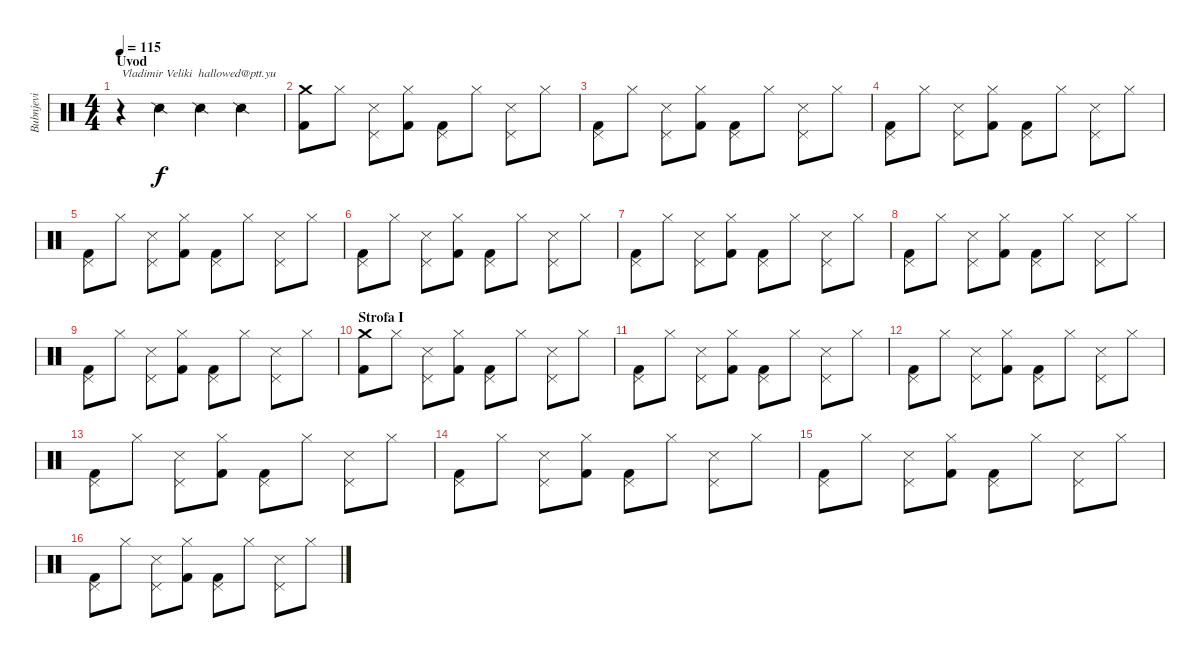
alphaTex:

\track ("Bubnjevi" "Bubnjevi") {instrument percussion}
\staff {score}
\articulation defaults
\ts (4 4)
\section ("" "Uvod")
\tempo 115
\clef neutral
\ks c
r.4{txt "Vladimir Veliki  hallowed@ptt.yu" dy f} "Snare (side stick) 2".4 "Snare (side stick) 2".4 "Snare (side stick) 2".4 |
("Crash medium (hit)" "Kick (hit) 2").8 "Hi-Hat (closed)".8 ("Pedal Hi-Hat (hit)" "Snare (side stick) 3").8 ("Hi-Hat (closed)" "Kick (hit) 2").8 ("Pedal Hi-Hat (hit)" "Kick (hit) 2").8 "Hi-Hat (closed)".8 ("Pedal Hi-Hat (hit)" "Snare (side stick) 3").8 "Hi-Hat (closed)".8 |
("Pedal Hi-Hat (hit)" "Kick (hit) 2").8 "Hi-Hat (closed)".8 ("Pedal Hi-Hat (hit)" "Snare (side stick) 3").8 ("Hi-Hat (closed)" "Kick (hit) 2").8 ("Pedal Hi-Hat (hit)" "Kick (hit) 2").8 "Hi-Hat (closed)".8 ("Pedal Hi-Hat (hit)" "Snare (side stick) 3").8 "Hi-Hat (closed)".8 |
("Pedal Hi-Hat (hit)" "Kick (hit) 2").8 "Hi-Hat (closed)".8 ("Pedal Hi-Hat (hit)" "Snare (side stick) 3").8 ("Hi-Hat (closed)" "Kick (hit) 2").8 ("Pedal Hi-Hat (hit)" "Kick (hit) 2").8 "Hi-Hat (closed)".8 ("Pedal Hi-Hat (hit)" "Snare (side stick) 3").8 "Hi-Hat (closed)".8 |
("Pedal Hi-Hat (hit)" "Kick (hit) 2").8 "Hi-Hat (closed)".8 ("Pedal Hi-Hat (hit)" "Snare (side stick) 3").8 ("Hi-Hat (closed)" "Kick (hit) 2").8 ("Pedal Hi-Hat (hit)" "Kick (hit) 2").8 "Hi-Hat (closed)".8 ("Pedal Hi-Hat (hit)" "Snare (side stick) 3").8 "Hi-Hat (closed)".8 |
("Pedal Hi-Hat (hit)" "Kick (hit) 2").8 "Hi-Hat (closed)".8 ("Pedal Hi-Hat (hit)" "Snare (side stick) 3").8 ("Hi-Hat (closed)" "Kick (hit) 2").8 ("Pedal Hi-Hat (hit)" "Kick (hit) 2").8 "Hi-Hat (closed)".8 ("Pedal Hi-Hat (hit)" "Snare (side stick) 3").8 "Hi-Hat (closed)".8 |
("Pedal Hi-Hat (hit)" "Kick (hit) 2").8 "Hi-Hat (closed)".8 ("Pedal Hi-Hat (hit)" "Snare (side stick) 3").8 ("Hi-Hat (closed)" "Kick (hit) 2").8 ("Pedal Hi-Hat (hit)" "Kick (hit) 2").8 "Hi-Hat (closed)".8 ("Pedal Hi-Hat (hit)" "Snare (side stick) 3").8 "Hi-Hat (closed)".8 |
("Pedal Hi-Hat (hit)" "Kick (hit) 2").8 "Hi-Hat (closed)".8 ("Pedal Hi-Hat (hit)" "Snare (side stick) 3").8 ("Hi-Hat (closed)" "Kick (hit) 2").8 ("Pedal Hi-Hat (hit)" "Kick (hit) 2").8 "Hi-Hat (closed)".8 ("Pedal Hi-Hat (hit)" "Snare (side stick) 3").8 "Hi-Hat (closed)".8 |
("Pedal Hi-Hat (hit)" "Kick (hit) 2").8 "Hi-Hat (closed)".8 ("Pedal Hi-Hat (hit)" "Snare (side stick) 3").8 ("Hi-Hat (closed)" "Kick (hit) 2").8 ("Pedal Hi-Hat (hit)" "Kick (hit) 2").8 "Hi-Hat (closed)".8 ("Pedal Hi-Hat (hit)" "Snare (side stick) 3").8 "Hi-Hat (closed)".8 |
\section ("" "Strofa I")
("Crash medium (hit)" "Kick (hit) 2").8 "Hi-Hat (closed)".8 ("Pedal Hi-Hat (hit)" "Snare (side stick) 3").8 ("Hi-Hat (closed)" "Kick (hit) 2").8 ("Pedal Hi-Hat (hit)" "Kick (hit) 2").8 "Hi-Hat (closed)".8 ("Pedal Hi-Hat (hit)" "Snare (side stick) 3").8 "Hi-Hat (closed)".8 |
("Pedal Hi-Hat (hit)" "Kick (hit) 2").8 "Hi-Hat (closed)".8 ("Pedal Hi-Hat (hit)" "Snare (side stick) 3").8 ("Hi-Hat (closed)" "Kick (hit) 2").8 ("Pedal Hi-Hat (hit)" "Kick (hit) 2").8 "Hi-Hat (closed)".8 ("Pedal Hi-Hat (hit)" "Snare (side stick) 3").8 "Hi-Hat (closed)".8 |
("Pedal Hi-Hat (hit)" "Kick (hit) 2").8 "Hi-Hat (closed)".8 ("Pedal Hi-Hat (hit)" "Snare (side stick) 3").8 ("Hi-Hat (closed)" "Kick (hit) 2").8 ("Pedal Hi-Hat (hit)" "Kick (hit) 2").8 "Hi-Hat (closed)".8 ("Pedal Hi-Hat (hit)" "Snare (side stick) 3").8 "Hi-Hat (closed)".8 |
("Pedal Hi-Hat (hit)" "Kick (hit) 2").8 "Hi-Hat (closed)".8 ("Pedal Hi-Hat (hit)" "Snare (side stick) 3").8 ("Hi-Hat (closed)" "Kick (hit) 2").8 ("Pedal Hi-Hat (hit)" "Kick (hit) 2").8 "Hi-Hat (closed)".8 ("Pedal Hi-Hat (hit)" "Snare (side stick) 3").8 "Hi-Hat (closed)".8 |
("Pedal Hi-Hat (hit)" "Kick (hit) 2").8 "Hi-Hat (closed)".8 ("Pedal Hi-Hat (hit)" "Snare (side stick) 3").8 ("Hi-Hat (closed)" "Kick (hit) 2").8 ("Pedal Hi-Hat (hit)" "Kick (hit) 2").8 "Hi-Hat (closed)".8 ("Pedal Hi-Hat (hit)" "Snare (side stick) 3").8 "Hi-Hat (closed)".8 |
("Pedal Hi-Hat (hit)" "Kick (hit) 2").8 "Hi-Hat (closed)".8 ("Pedal Hi-Hat (hit)" "Snare (side stick) 3").8 ("Hi-Hat (closed)" "Kick (hit) 2").8 ("Pedal Hi-Hat (hit)" "Kick (hit) 2").8 "Hi-Hat (closed)".8 ("Pedal Hi-Hat (hit)" "Snare (side stick) 3").8 "Hi-Hat (closed)".8 |
("Pedal Hi-Hat (hit)" "Kick (hit) 2").8 "Hi-Hat (closed)".8 ("Pedal Hi-Hat (hit)" "Snare (side stick) 3").8 ("Hi-Hat (closed)" "Kick (hit) 2").8 ("Pedal Hi-Hat (hit)" "Kick (hit) 2").8 "Hi-Hat (closed)".8 ("Pedal Hi-Hat (hit)" "Snare (side stick) 3").8 "Hi-Hat (closed)".8
